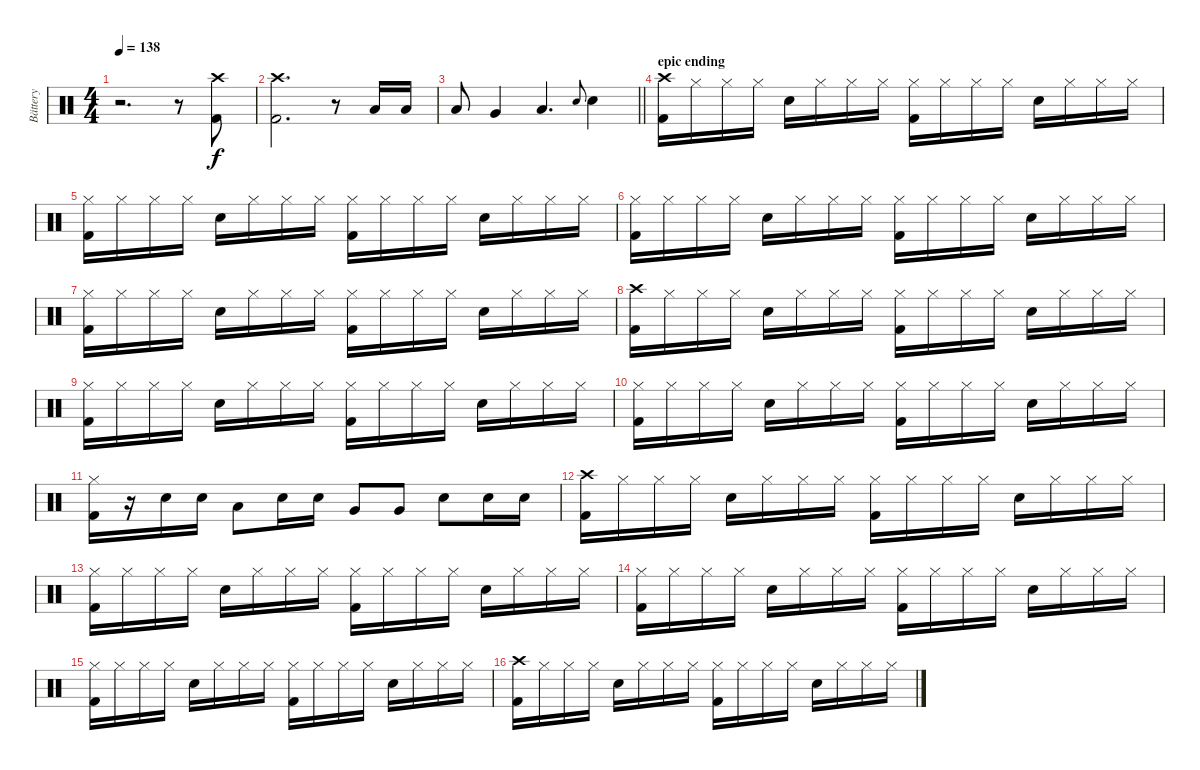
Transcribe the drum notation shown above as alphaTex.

\track ("Bättery" "Bättery") {instrument percussion}
\staff {score}
\articulation defaults
\ts (4 4)
\tempo 138
\clef neutral
\ks c
r.2{d dy f} r.8 ("Crash high (hit)" "Kick (hit) 2").8 |
("Crash high (hit)" "Kick (hit) 2").2{d} r.8 "Low Tom (hit)".16 "Low Tom (hit)".16 |
\barLineRight lightlight "Low Tom (hit)".8 "Very Low Tom (hit)".4 "Low Floor Tom (hit)".4{d} "Electric Snare (hit)".8{gr onbeat} "Electric Snare (hit)".4
|
\section ("" "epic ending")
("Crash high (hit)" "Kick (hit) 2").16 "Hi-Hat (closed)".16 "Hi-Hat (closed)".16 "Hi-Hat (closed)".16 "Electric Snare (hit)".16 "Hi-Hat (closed)".16 "Hi-Hat (closed)".16 "Hi-Hat (closed)".16 ("Hi-Hat (closed)" "Kick (hit) 2").16 "Hi-Hat (closed)".16 "Hi-Hat (closed)".16 "Hi-Hat (closed)".16 "Electric Snare (hit)".16 "Hi-Hat (closed)".16 "Hi-Hat (closed)".16 "Hi-Hat (closed)".16 |
("Hi-Hat (closed)" "Kick (hit) 2").16 "Hi-Hat (closed)".16 "Hi-Hat (closed)".16 "Hi-Hat (closed)".16 "Electric Snare (hit)".16 "Hi-Hat (closed)".16 "Hi-Hat (closed)".16 "Hi-Hat (closed)".16 ("Hi-Hat (closed)" "Kick (hit) 2").16 "Hi-Hat (closed)".16 "Hi-Hat (closed)".16 "Hi-Hat (closed)".16 "Electric Snare (hit)".16 "Hi-Hat (closed)".16 "Hi-Hat (closed)".16 "Hi-Hat (closed)".16 |
("Hi-Hat (closed)" "Kick (hit) 2").16 "Hi-Hat (closed)".16 "Hi-Hat (closed)".16 "Hi-Hat (closed)".16 "Electric Snare (hit)".16 "Hi-Hat (closed)".16 "Hi-Hat (closed)".16 "Hi-Hat (closed)".16 ("Hi-Hat (closed)" "Kick (hit) 2").16 "Hi-Hat (closed)".16 "Hi-Hat (closed)".16 "Hi-Hat (closed)".16 "Electric Snare (hit)".16 "Hi-Hat (closed)".16 "Hi-Hat (closed)".16 "Hi-Hat (closed)".16 |
("Hi-Hat (closed)" "Kick (hit) 2").16 "Hi-Hat (closed)".16 "Hi-Hat (closed)".16 "Hi-Hat (closed)".16 "Electric Snare (hit)".16 "Hi-Hat (closed)".16 "Hi-Hat (closed)".16 "Hi-Hat (closed)".16 ("Hi-Hat (closed)" "Kick (hit) 2").16 "Hi-Hat (closed)".16 "Hi-Hat (closed)".16 "Hi-Hat (closed)".16 "Electric Snare (hit)".16 "Hi-Hat (closed)".16 "Hi-Hat (closed)".16 "Hi-Hat (closed)".16 |
("Crash high (hit)" "Kick (hit) 2").16 "Hi-Hat (closed)".16 "Hi-Hat (closed)".16 "Hi-Hat (closed)".16 "Electric Snare (hit)".16 "Hi-Hat (closed)".16 "Hi-Hat (closed)".16 "Hi-Hat (closed)".16 ("Hi-Hat (closed)" "Kick (hit) 2").16 "Hi-Hat (closed)".16 "Hi-Hat (closed)".16 "Hi-Hat (closed)".16 "Electric Snare (hit)".16 "Hi-Hat (closed)".16 "Hi-Hat (closed)".16 "Hi-Hat (closed)".16 |
("Hi-Hat (closed)" "Kick (hit) 2").16 "Hi-Hat (closed)".16 "Hi-Hat (closed)".16 "Hi-Hat (closed)".16 "Electric Snare (hit)".16 "Hi-Hat (closed)".16 "Hi-Hat (closed)".16 "Hi-Hat (closed)".16 ("Hi-Hat (closed)" "Kick (hit) 2").16 "Hi-Hat (closed)".16 "Hi-Hat (closed)".16 "Hi-Hat (closed)".16 "Electric Snare (hit)".16 "Hi-Hat (closed)".16 "Hi-Hat (closed)".16 "Hi-Hat (closed)".16 |
("Hi-Hat (closed)" "Kick (hit) 2").16 "Hi-Hat (closed)".16 "Hi-Hat (closed)".16 "Hi-Hat (closed)".16 "Electric Snare (hit)".16 "Hi-Hat (closed)".16 "Hi-Hat (closed)".16 "Hi-Hat (closed)".16 ("Hi-Hat (closed)" "Kick (hit) 2").16 "Hi-Hat (closed)".16 "Hi-Hat (closed)".16 "Hi-Hat (closed)".16 "Electric Snare (hit)".16 "Hi-Hat (closed)".16 "Hi-Hat (closed)".16 "Hi-Hat (closed)".16 |
("Hi-Hat (closed)" "Kick (hit) 2").16 r.16 "Electric Snare (hit)".16 "Electric Snare (hit)".16 "Low Tom (hit)".8 "Electric Snare (hit)".16 "Electric Snare (hit)".16 "Very Low Tom (hit)".8 "Very Low Tom (hit)".8 "Electric Snare (hit)".8 "Electric Snare (hit)".16 "Electric Snare (hit)".16 |
("Crash high (hit)" "Kick (hit) 2").16 "Hi-Hat (closed)".16 "Hi-Hat (closed)".16 "Hi-Hat (closed)".16 "Electric Snare (hit)".16 "Hi-Hat (closed)".16 "Hi-Hat (closed)".16 "Hi-Hat (closed)".16 ("Hi-Hat (closed)" "Kick (hit) 2").16 "Hi-Hat (closed)".16 "Hi-Hat (closed)".16 "Hi-Hat (closed)".16 "Electric Snare (hit)".16 "Hi-Hat (closed)".16 "Hi-Hat (closed)".16 "Hi-Hat (closed)".16 |
("Hi-Hat (closed)" "Kick (hit) 2").16 "Hi-Hat (closed)".16 "Hi-Hat (closed)".16 "Hi-Hat (closed)".16 "Electric Snare (hit)".16 "Hi-Hat (closed)".16 "Hi-Hat (closed)".16 "Hi-Hat (closed)".16 ("Hi-Hat (closed)" "Kick (hit) 2").16 "Hi-Hat (closed)".16 "Hi-Hat (closed)".16 "Hi-Hat (closed)".16 "Electric Snare (hit)".16 "Hi-Hat (closed)".16 "Hi-Hat (closed)".16 "Hi-Hat (closed)".16 |
("Hi-Hat (closed)" "Kick (hit) 2").16 "Hi-Hat (closed)".16 "Hi-Hat (closed)".16 "Hi-Hat (closed)".16 "Electric Snare (hit)".16 "Hi-Hat (closed)".16 "Hi-Hat (closed)".16 "Hi-Hat (closed)".16 ("Hi-Hat (closed)" "Kick (hit) 2").16 "Hi-Hat (closed)".16 "Hi-Hat (closed)".16 "Hi-Hat (closed)".16 "Electric Snare (hit)".16 "Hi-Hat (closed)".16 "Hi-Hat (closed)".16 "Hi-Hat (closed)".16 |
("Hi-Hat (closed)" "Kick (hit) 2").16 "Hi-Hat (closed)".16 "Hi-Hat (closed)".16 "Hi-Hat (closed)".16 "Electric Snare (hit)".16 "Hi-Hat (closed)".16 "Hi-Hat (closed)".16 "Hi-Hat (closed)".16 ("Hi-Hat (closed)" "Kick (hit) 2").16 "Hi-Hat (closed)".16 "Hi-Hat (closed)".16 "Hi-Hat (closed)".16 "Electric Snare (hit)".16 "Hi-Hat (closed)".16 "Hi-Hat (closed)".16 "Hi-Hat (closed)".16 |
("Crash high (hit)" "Kick (hit) 2").16 "Hi-Hat (closed)".16 "Hi-Hat (closed)".16 "Hi-Hat (closed)".16 "Electric Snare (hit)".16 "Hi-Hat (closed)".16 "Hi-Hat (closed)".16 "Hi-Hat (closed)".16 ("Hi-Hat (closed)" "Kick (hit) 2").16 "Hi-Hat (closed)".16 "Hi-Hat (closed)".16 "Hi-Hat (closed)".16 "Electric Snare (hit)".16 "Hi-Hat (closed)".16 "Hi-Hat (closed)".16 "Hi-Hat (closed)".16
